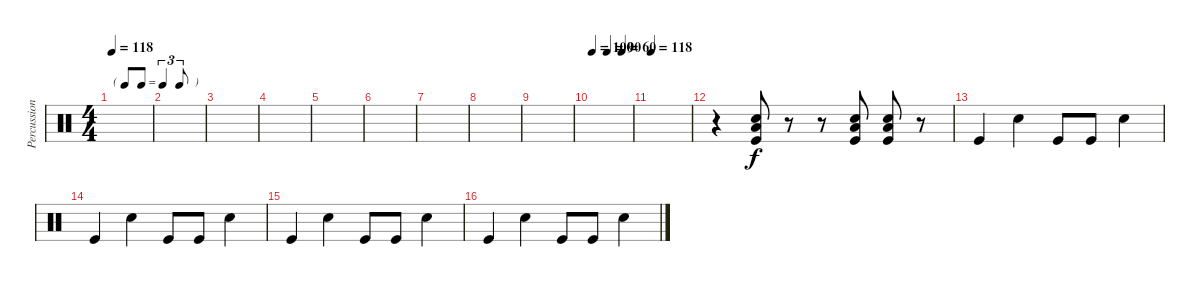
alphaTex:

\track ("Percussion" "Percussion") {instrument percussion}
\staff {score}
\articulation defaults
\ts (4 4)
\tf triplet8th
\tempo 118
\tempo 110
\tempo 118
\clef neutral
\ks c
|
|
|
|
|
|
|
|
|
\tempo 100
\tempo (90 0.375)
\tempo (60 0.75)
|
\tempo 118
|
r.4 ("Low Tom (hit)" "Snare (hit) 2" "Kick (hit)").8 r.8 r.8 ("Low Tom (hit)" "Snare (hit) 2" "Kick (hit)").8 ("Low Tom (hit)" "Snare (hit) 2" "Kick (hit)").8 r.8 |
"Kick (hit)".4 "Snare (hit) 2".4 "Kick (hit)".8 "Kick (hit)".8 "Snare (hit) 2".4 |
"Kick (hit)".4 "Snare (hit) 2".4 "Kick (hit)".8 "Kick (hit)".8 "Snare (hit) 2".4 |
"Kick (hit)".4 "Snare (hit) 2".4 "Kick (hit)".8 "Kick (hit)".8 "Snare (hit) 2".4 |
"Kick (hit)".4 "Snare (hit) 2".4 "Kick (hit)".8 "Kick (hit)".8 "Snare (hit) 2".4
